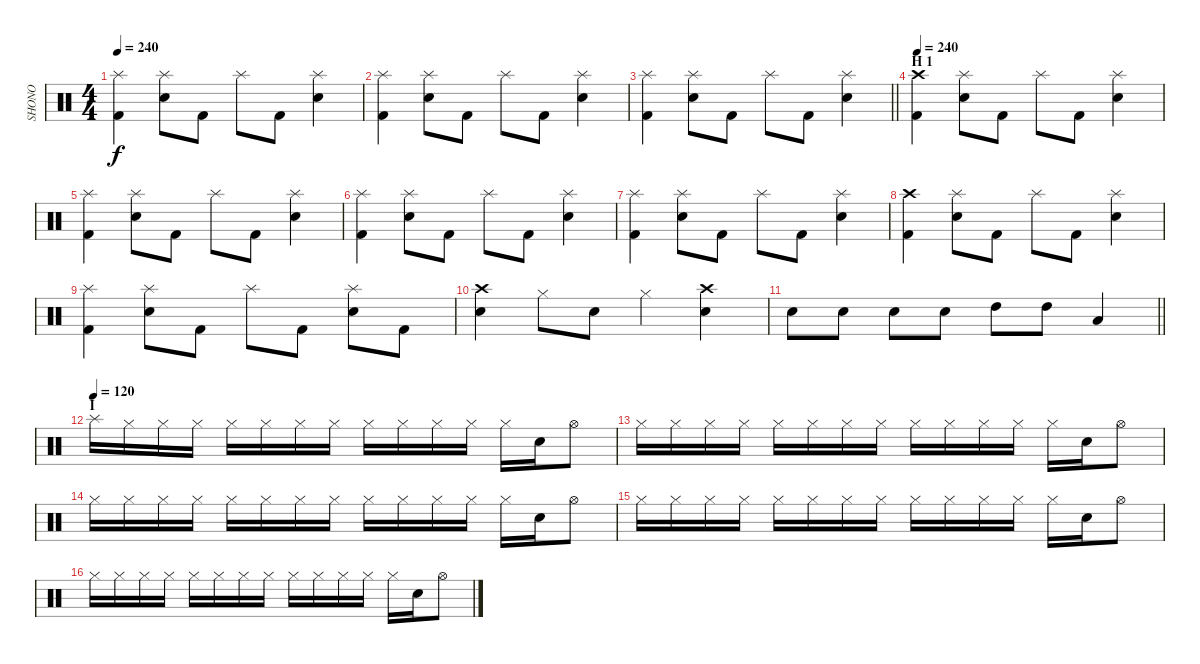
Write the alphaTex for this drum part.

\track ("SHONO" "SHONO") {instrument percussion}
\staff {score}
\articulation defaults
\ts (4 4)
\tempo 240
\clef neutral
\ks c
("Splash (hit)" "Kick (hit) 2").4{dy f} ("Splash (hit)" "Snare (hit) 2").8 "Kick (hit) 2".8 "Splash (hit)".8 "Kick (hit) 2".8 ("Splash (hit)" "Snare (hit) 2").4 |
("Splash (hit)" "Kick (hit) 2").4 ("Splash (hit)" "Snare (hit) 2").8 "Kick (hit) 2".8 "Splash (hit)".8 "Kick (hit) 2".8 ("Splash (hit)" "Snare (hit) 2").4 |
\barLineRight lightlight
("Splash (hit)" "Kick (hit) 2").4 ("Splash (hit)" "Snare (hit) 2").8 "Kick (hit) 2".8 "Splash (hit)".8 "Kick (hit) 2".8 ("Splash (hit)" "Snare (hit) 2").4 |
\section ("" "H 1")
\tempo 240
("Crash high (hit)" "Kick (hit) 2").4 ("Splash (hit)" "Snare (hit) 2").8 "Kick (hit) 2".8 "Splash (hit)".8 "Kick (hit) 2".8 ("Splash (hit)" "Snare (hit) 2").4 |
("Splash (hit)" "Kick (hit) 2").4 ("Splash (hit)" "Snare (hit) 2").8 "Kick (hit) 2".8 "Splash (hit)".8 "Kick (hit) 2".8 ("Splash (hit)" "Snare (hit) 2").4 |
("Splash (hit)" "Kick (hit) 2").4 ("Splash (hit)" "Snare (hit) 2").8 "Kick (hit) 2".8 "Splash (hit)".8 "Kick (hit) 2".8 ("Splash (hit)" "Snare (hit) 2").4 |
("Splash (hit)" "Kick (hit) 2").4 ("Splash (hit)" "Snare (hit) 2").8 "Kick (hit) 2".8 "Splash (hit)".8 "Kick (hit) 2".8 ("Splash (hit)" "Snare (hit) 2").4 |
("Crash high (hit)" "Kick (hit) 2").4 ("Splash (hit)" "Snare (hit) 2").8 "Kick (hit) 2".8 "Splash (hit)".8 "Kick (hit) 2".8 ("Splash (hit)" "Snare (hit) 2").4 |
("Splash (hit)" "Kick (hit) 2").4 ("Splash (hit)" "Snare (hit) 2").8 "Kick (hit) 2".8 "Splash (hit)".8 "Kick (hit) 2".8 ("Splash (hit)" "Snare (hit) 2").8 "Kick (hit) 2".8 |
("Crash high (hit)" "Snare (hit) 2").4 "Hi-Hat (closed)".8 "Snare (hit) 2".8 "Hi-Hat (closed)".4 ("Crash high (hit)" "Snare (hit) 2").4 |
\barLineRight lightlight "Snare (hit) 2".8 "Snare (hit) 2".8 "Snare (hit) 2".8 "Snare (hit) 2".8 "High Tom (hit)".8 "High Tom (hit)".8 "Low Tom (hit)".4
|
\section ("" "I")
\tempo (120)
"Splash (hit)".16 "Hi-Hat (closed)".16 "Hi-Hat (closed)".16 "Hi-Hat (closed)".16 "Hi-Hat (closed)".16 "Hi-Hat (closed)".16 "Hi-Hat (closed)".16 "Hi-Hat (closed)".16 "Hi-Hat (closed)".16 "Hi-Hat (closed)".16 "Hi-Hat (closed)".16 "Hi-Hat (closed)".16 "Hi-Hat (closed)".16 "Snare (hit) 2".16 "Hi-Hat (open)".8 |
"Hi-Hat (closed)".16 "Hi-Hat (closed)".16 "Hi-Hat (closed)".16 "Hi-Hat (closed)".16 "Hi-Hat (closed)".16 "Hi-Hat (closed)".16 "Hi-Hat (closed)".16 "Hi-Hat (closed)".16 "Hi-Hat (closed)".16 "Hi-Hat (closed)".16 "Hi-Hat (closed)".16 "Hi-Hat (closed)".16 "Hi-Hat (closed)".16 "Snare (hit) 2".16 "Hi-Hat (open)".8 |
"Hi-Hat (closed)".16 "Hi-Hat (closed)".16 "Hi-Hat (closed)".16 "Hi-Hat (closed)".16 "Hi-Hat (closed)".16 "Hi-Hat (closed)".16 "Hi-Hat (closed)".16 "Hi-Hat (closed)".16 "Hi-Hat (closed)".16 "Hi-Hat (closed)".16 "Hi-Hat (closed)".16 "Hi-Hat (closed)".16 "Hi-Hat (closed)".16 "Snare (hit) 2".16 "Hi-Hat (open)".8 |
"Hi-Hat (closed)".16 "Hi-Hat (closed)".16 "Hi-Hat (closed)".16 "Hi-Hat (closed)".16 "Hi-Hat (closed)".16 "Hi-Hat (closed)".16 "Hi-Hat (closed)".16 "Hi-Hat (closed)".16 "Hi-Hat (closed)".16 "Hi-Hat (closed)".16 "Hi-Hat (closed)".16 "Hi-Hat (closed)".16 "Hi-Hat (closed)".16 "Snare (hit) 2".16 "Hi-Hat (open)".8 |
"Hi-Hat (closed)".16 "Hi-Hat (closed)".16 "Hi-Hat (closed)".16 "Hi-Hat (closed)".16 "Hi-Hat (closed)".16 "Hi-Hat (closed)".16 "Hi-Hat (closed)".16 "Hi-Hat (closed)".16 "Hi-Hat (closed)".16 "Hi-Hat (closed)".16 "Hi-Hat (closed)".16 "Hi-Hat (closed)".16 "Hi-Hat (closed)".16 "Snare (hit) 2".16 "Hi-Hat (open)".8
